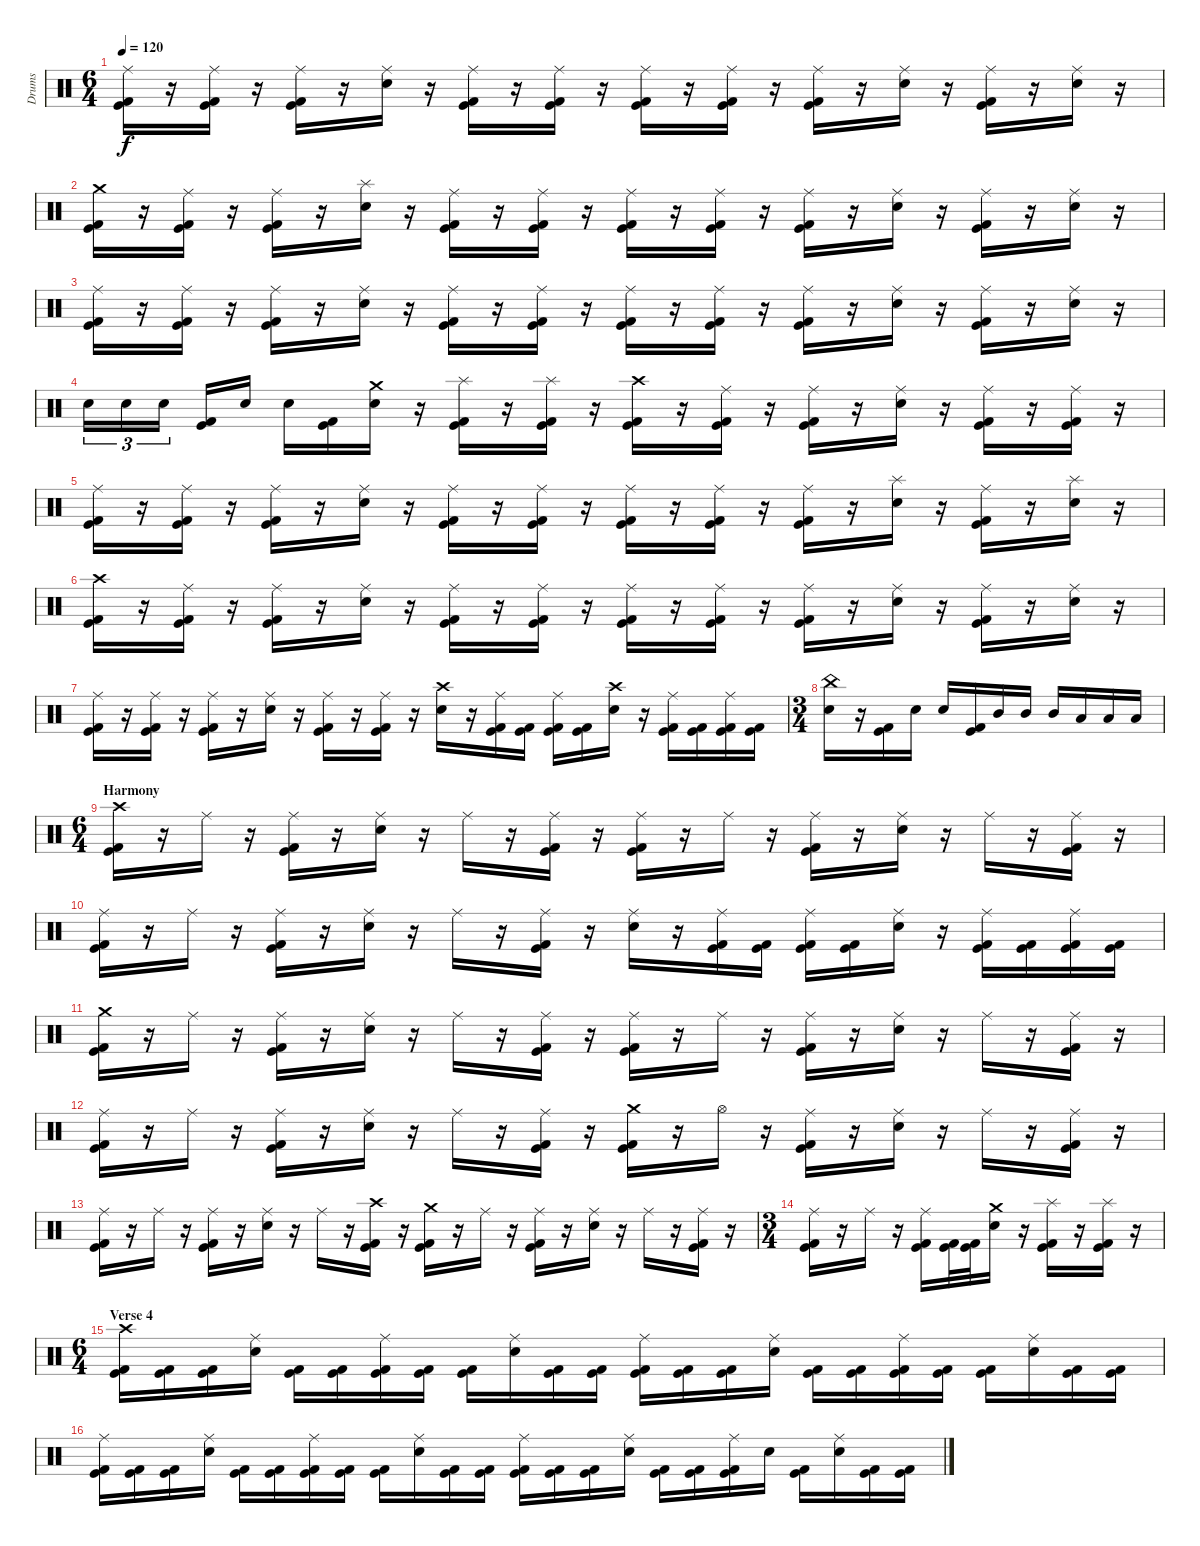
\track ("Drums" "Drums") {instrument percussion}
\staff {score}
\articulation defaults
\ts (6 4)
\tempo 120
\clef neutral
\ks c
("Ride (middle)" "Kick (hit)" "Kick (hit) 2").16{dy f} r.16 ("Ride (middle)" "Kick (hit)" "Kick (hit) 2").16 r.16 ("Ride (middle)" "Kick (hit)" "Kick (hit) 2").16 r.16 ("Ride (middle)" "Electric Snare (hit)").16 r.16 ("Ride (middle)" "Kick (hit)" "Kick (hit) 2").16 r.16 ("Ride (middle)" "Kick (hit)" "Kick (hit) 2").16 r.16 ("Ride (middle)" "Kick (hit)" "Kick (hit) 2").16 r.16 ("Ride (middle)" "Kick (hit)" "Kick (hit) 2").16 r.16 ("Ride (middle)" "Kick (hit)" "Kick (hit) 2").16 r.16 ("Ride (middle)" "Electric Snare (hit)").16 r.16 ("Ride (middle)" "Kick (hit)" "Kick (hit) 2").16 r.16 ("Ride (middle)" "Electric Snare (hit)").16 r.16 |
("Crash medium (hit)" "Kick (hit)" "Kick (hit) 2").16 r.16 ("Ride (middle)" "Kick (hit)" "Kick (hit) 2").16 r.16 ("Ride (middle)" "Kick (hit)" "Kick (hit) 2").16 r.16 ("Splash (hit)" "Electric Snare (hit)").16 r.16 ("Ride (middle)" "Kick (hit)" "Kick (hit) 2").16 r.16 ("Ride (middle)" "Kick (hit)" "Kick (hit) 2").16 r.16 ("Ride (middle)" "Kick (hit)" "Kick (hit) 2").16 r.16 ("Ride (middle)" "Kick (hit)" "Kick (hit) 2").16 r.16 ("Ride (middle)" "Kick (hit)" "Kick (hit) 2").16 r.16 ("Ride (middle)" "Electric Snare (hit)").16 r.16 ("Ride (middle)" "Kick (hit)" "Kick (hit) 2").16 r.16 ("Ride (middle)" "Electric Snare (hit)").16 r.16 |
("Ride (middle)" "Kick (hit)" "Kick (hit) 2").16 r.16 ("Ride (middle)" "Kick (hit)" "Kick (hit) 2").16 r.16 ("Ride (middle)" "Kick (hit)" "Kick (hit) 2").16 r.16 ("Ride (middle)" "Electric Snare (hit)").16 r.16 ("Ride (middle)" "Kick (hit)" "Kick (hit) 2").16 r.16 ("Ride (middle)" "Kick (hit)" "Kick (hit) 2").16 r.16 ("Ride (middle)" "Kick (hit)" "Kick (hit) 2").16 r.16 ("Ride (middle)" "Kick (hit)" "Kick (hit) 2").16 r.16 ("Ride (middle)" "Kick (hit)" "Kick (hit) 2").16 r.16 ("Ride (middle)" "Electric Snare (hit)").16 r.16 ("Ride (middle)" "Kick (hit)" "Kick (hit) 2").16 r.16 ("Ride (middle)" "Electric Snare (hit)").16 r.16 |
"Electric Snare (hit)".16{tu (3 2)} "Electric Snare (hit)".16{tu (3 2)} "Electric Snare (hit)".16{tu (3 2)} ("Kick (hit)" "Kick (hit) 2").16 "Electric Snare (hit)".16 "Electric Snare (hit)".16 ("Kick (hit)" "Kick (hit) 2").16 ("Crash medium (hit)" "Electric Snare (hit)").16 r.16 ("Splash (hit)" "Kick (hit)" "Kick (hit) 2").16 r.16 ("Splash (hit)" "Kick (hit)" "Kick (hit) 2").16 r.16 ("Crash high (hit)" "Kick (hit)" "Kick (hit) 2").16 r.16 ("Ride (middle)" "Kick (hit)" "Kick (hit) 2").16 r.16 ("Ride (middle)" "Kick (hit)" "Kick (hit) 2").16 r.16 ("Ride (middle)" "Electric Snare (hit)").16 r.16 ("Ride (middle)" "Kick (hit)" "Kick (hit) 2").16 r.16 ("Ride (middle)" "Kick (hit)" "Kick (hit) 2").16 r.16 |
("Ride (middle)" "Kick (hit)" "Kick (hit) 2").16 r.16 ("Ride (middle)" "Kick (hit)" "Kick (hit) 2").16 r.16 ("Ride (middle)" "Kick (hit)" "Kick (hit) 2").16 r.16 ("Ride (middle)" "Electric Snare (hit)").16 r.16 ("Ride (middle)" "Kick (hit)" "Kick (hit) 2").16 r.16 ("Ride (middle)" "Kick (hit)" "Kick (hit) 2").16 r.16 ("Ride (middle)" "Kick (hit)" "Kick (hit) 2").16 r.16 ("Ride (middle)" "Kick (hit)" "Kick (hit) 2").16 r.16 ("Ride (middle)" "Kick (hit)" "Kick (hit) 2").16 r.16 ("Splash (hit)" "Electric Snare (hit)").16 r.16 ("Ride (middle)" "Kick (hit)" "Kick (hit) 2").16 r.16 ("Splash (hit)" "Electric Snare (hit)").16 r.16 |
("Crash high (hit)" "Kick (hit)" "Kick (hit) 2").16 r.16 ("Ride (middle)" "Kick (hit)" "Kick (hit) 2").16 r.16 ("Ride (middle)" "Kick (hit)" "Kick (hit) 2").16 r.16 ("Ride (middle)" "Electric Snare (hit)").16 r.16 ("Ride (middle)" "Kick (hit)" "Kick (hit) 2").16 r.16 ("Ride (middle)" "Kick (hit)" "Kick (hit) 2").16 r.16 ("Ride (middle)" "Kick (hit)" "Kick (hit) 2").16 r.16 ("Ride (middle)" "Kick (hit)" "Kick (hit) 2").16 r.16 ("Ride (middle)" "Kick (hit)" "Kick (hit) 2").16 r.16 ("Ride (middle)" "Electric Snare (hit)").16 r.16 ("Ride (middle)" "Kick (hit)" "Kick (hit) 2").16 r.16 ("Ride (middle)" "Electric Snare (hit)").16 r.16 |
("Ride (middle)" "Kick (hit)" "Kick (hit) 2").16 r.16 ("Ride (middle)" "Kick (hit)" "Kick (hit) 2").16 r.16 ("Ride (middle)" "Kick (hit)" "Kick (hit) 2").16 r.16 ("Ride (middle)" "Electric Snare (hit)").16 r.16 ("Ride (middle)" "Kick (hit)" "Kick (hit) 2").16 r.16 ("Ride (middle)" "Kick (hit)" "Kick (hit) 2").16 r.16 ("Crash high (hit)" "Electric Snare (hit)").16 r.16 ("Ride (middle)" "Kick (hit)" "Kick (hit) 2").16 ("Kick (hit)" "Kick (hit) 2").16 ("Ride (middle)" "Kick (hit)" "Kick (hit) 2").16 ("Kick (hit)" "Kick (hit) 2").16 ("Crash high (hit)" "Electric Snare (hit)").16 r.16 ("Ride (middle)" "Kick (hit)" "Kick (hit) 2").16 ("Kick (hit)" "Kick (hit) 2").16 ("Ride (middle)" "Kick (hit)" "Kick (hit) 2").16 ("Kick (hit)" "Kick (hit) 2").16 |
\ts (3 4)
("China (hit)" "Electric Snare (hit)").16 r.16 ("Kick (hit)" "Kick (hit) 2").16 "Electric Snare (hit)".16 "Electric Snare (hit)".16 ("Kick (hit)" "Kick (hit) 2").16 "Mid Tom (hit)".16 "Mid Tom (hit)".16 "Mid Tom (hit)".16 "Low Tom (hit)".16 "Low Tom (hit)".16 "Low Tom (hit)".16 |
\ts (6 4)
\section ("" "Harmony")
("Crash high (hit)" "Kick (hit)" "Kick (hit) 2").16 r.16 "Ride (middle)".16 r.16 ("Ride (middle)" "Kick (hit)" "Kick (hit) 2").16 r.16 ("Ride (middle)" "Electric Snare (hit)").16 r.16 "Ride (middle)".16 r.16 ("Ride (middle)" "Kick (hit)" "Kick (hit) 2").16 r.16 ("Ride (middle)" "Kick (hit)" "Kick (hit) 2").16 r.16 "Ride (middle)".16 r.16 ("Ride (middle)" "Kick (hit)" "Kick (hit) 2").16 r.16 ("Ride (middle)" "Electric Snare (hit)").16 r.16 "Ride (middle)".16 r.16 ("Ride (middle)" "Kick (hit)" "Kick (hit) 2").16 r.16 |
("Ride (middle)" "Kick (hit)" "Kick (hit) 2").16 r.16 "Ride (middle)".16 r.16 ("Ride (middle)" "Kick (hit)" "Kick (hit) 2").16 r.16 ("Ride (middle)" "Electric Snare (hit)").16 r.16 "Ride (middle)".16 r.16 ("Ride (middle)" "Kick (hit)" "Kick (hit) 2").16 r.16 ("Ride (middle)" "Electric Snare (hit)").16 r.16 ("Ride (middle)" "Kick (hit)" "Kick (hit) 2").16 ("Kick (hit)" "Kick (hit) 2").16 ("Ride (middle)" "Kick (hit)" "Kick (hit) 2").16 ("Kick (hit)" "Kick (hit) 2").16 ("Ride (middle)" "Electric Snare (hit)").16 r.16 ("Ride (middle)" "Kick (hit)" "Kick (hit) 2").16 ("Kick (hit)" "Kick (hit) 2").16 ("Ride (middle)" "Kick (hit)" "Kick (hit) 2").16 ("Kick (hit)" "Kick (hit) 2").16 |
("Crash medium (hit)" "Kick (hit)" "Kick (hit) 2").16 r.16 "Ride (middle)".16 r.16 ("Ride (middle)" "Kick (hit)" "Kick (hit) 2").16 r.16 ("Ride (middle)" "Electric Snare (hit)").16 r.16 "Ride (middle)".16 r.16 ("Ride (middle)" "Kick (hit)" "Kick (hit) 2").16 r.16 ("Ride (middle)" "Kick (hit)" "Kick (hit) 2").16 r.16 "Ride (middle)".16 r.16 ("Ride (middle)" "Kick (hit)" "Kick (hit) 2").16 r.16 ("Ride (middle)" "Electric Snare (hit)").16 r.16 "Ride (middle)".16 r.16 ("Ride (middle)" "Kick (hit)" "Kick (hit) 2").16 r.16 |
("Ride (middle)" "Kick (hit)" "Kick (hit) 2").16 r.16 "Ride (middle)".16 r.16 ("Ride (middle)" "Kick (hit)" "Kick (hit) 2").16 r.16 ("Ride (middle)" "Electric Snare (hit)").16 r.16 "Ride (middle)".16 r.16 ("Ride (middle)" "Kick (hit)" "Kick (hit) 2").16 r.16 ("Crash medium (hit)" "Kick (hit)" "Kick (hit) 2").16 r.16 "Hi-Hat (open)".16 r.16 ("Ride (middle)" "Kick (hit)" "Kick (hit) 2").16 r.16 ("Ride (middle)" "Electric Snare (hit)").16 r.16 "Ride (middle)".16 r.16 ("Ride (middle)" "Kick (hit)" "Kick (hit) 2").16 r.16 |
("Ride (middle)" "Kick (hit)" "Kick (hit) 2").16 r.16 "Ride (middle)".16 r.16 ("Ride (middle)" "Kick (hit)" "Kick (hit) 2").16 r.16 ("Ride (middle)" "Electric Snare (hit)").16 r.16 "Ride (middle)".16 r.16 ("Crash high (hit)" "Kick (hit)" "Kick (hit) 2").16 r.16 ("Crash medium (hit)" "Kick (hit)" "Kick (hit) 2").16 r.16 "Ride (middle)".16 r.16 ("Ride (middle)" "Kick (hit)" "Kick (hit) 2").16 r.16 ("Ride (middle)" "Electric Snare (hit)").16 r.16 "Ride (middle)".16 r.16 ("Ride (middle)" "Kick (hit)" "Kick (hit) 2").16 r.16 |
\ts (3 4)
("Ride (middle)" "Kick (hit)" "Kick (hit) 2").16 r.16 "Ride (middle)".16 r.16 ("Ride (middle)" "Kick (hit)" "Kick (hit) 2").16 ("Kick (hit)" "Kick (hit) 2").32 ("Kick (hit)" "Kick (hit) 2").32 ("Crash medium (hit)" "Electric Snare (hit)").16 r.16 ("Splash (hit)" "Kick (hit)" "Kick (hit) 2").16 r.16 ("Splash (hit)" "Kick (hit)" "Kick (hit) 2").16 r.16 |
\ts (6 4)
\section ("" "Verse 4")
("Crash high (hit)" "Kick (hit) 2" "Kick (hit)").16 ("Kick (hit) 2" "Kick (hit)").16 ("Kick (hit) 2" "Kick (hit)").16 ("Ride (middle)" "Electric Snare (hit)").16 ("Kick (hit) 2" "Kick (hit)").16 ("Kick (hit) 2" "Kick (hit)").16 ("Ride (middle)" "Kick (hit) 2" "Kick (hit)").16 ("Kick (hit) 2" "Kick (hit)").16 ("Kick (hit) 2" "Kick (hit)").16 ("Ride (middle)" "Electric Snare (hit)").16 ("Kick (hit) 2" "Kick (hit)").16 ("Kick (hit) 2" "Kick (hit)").16 ("Ride (middle)" "Kick (hit) 2" "Kick (hit)").16 ("Kick (hit) 2" "Kick (hit)").16 ("Kick (hit) 2" "Kick (hit)").16 ("Ride (middle)" "Electric Snare (hit)").16 ("Kick (hit) 2" "Kick (hit)").16 ("Kick (hit) 2" "Kick (hit)").16 ("Ride (middle)" "Kick (hit) 2" "Kick (hit)").16 ("Kick (hit) 2" "Kick (hit)").16 ("Kick (hit) 2" "Kick (hit)").16 ("Ride (middle)" "Electric Snare (hit)").16 ("Kick (hit) 2" "Kick (hit)").16 ("Kick (hit) 2" "Kick (hit)").16 |
("Ride (middle)" "Kick (hit) 2" "Kick (hit)").16 ("Kick (hit) 2" "Kick (hit)").16 ("Kick (hit) 2" "Kick (hit)").16 ("Ride (middle)" "Electric Snare (hit)").16 ("Kick (hit) 2" "Kick (hit)").16 ("Kick (hit) 2" "Kick (hit)").16 ("Ride (middle)" "Kick (hit) 2" "Kick (hit)").16 ("Kick (hit) 2" "Kick (hit)").16 ("Kick (hit) 2" "Kick (hit)").16 ("Ride (middle)" "Electric Snare (hit)").16 ("Kick (hit) 2" "Kick (hit)").16 ("Kick (hit) 2" "Kick (hit)").16 ("Ride (middle)" "Kick (hit) 2" "Kick (hit)").16 ("Kick (hit) 2" "Kick (hit)").16 ("Kick (hit) 2" "Kick (hit)").16 ("Ride (middle)" "Electric Snare (hit)").16 ("Kick (hit) 2" "Kick (hit)").16 ("Kick (hit) 2" "Kick (hit)").16 ("Ride (middle)" "Kick (hit) 2" "Kick (hit)").16 "Electric Snare (hit)".16 ("Kick (hit) 2" "Kick (hit)").16 ("Ride (middle)" "Electric Snare (hit)").16 ("Kick (hit) 2" "Kick (hit)").16 ("Kick (hit) 2" "Kick (hit)").16
